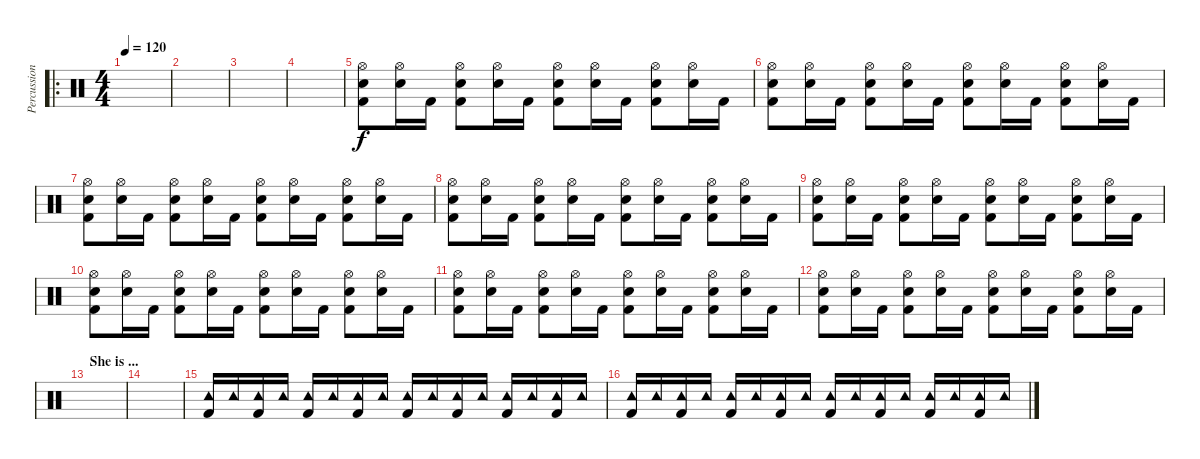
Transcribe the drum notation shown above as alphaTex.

\track ("Percussions" "Percussion") {instrument percussion}
\staff {score}
\articulation defaults
\ro
\ts (4 4)
\tempo 120
\clef neutral
\ks c
|
|
|
|
("Kick (hit) 2" "Hi-Hat (open)" "Snare (hit) 2").8 ("Hi-Hat (open)" "Snare (hit) 2").16 "Kick (hit) 2".16 ("Kick (hit) 2" "Hi-Hat (open)" "Snare (hit) 2").8 ("Hi-Hat (open)" "Snare (hit) 2").16 "Kick (hit) 2".16 ("Kick (hit) 2" "Hi-Hat (open)" "Snare (hit) 2").8 ("Hi-Hat (open)" "Snare (hit) 2").16 "Kick (hit) 2".16 ("Kick (hit) 2" "Hi-Hat (open)" "Snare (hit) 2").8 ("Hi-Hat (open)" "Snare (hit) 2").16 "Kick (hit) 2".16 |
("Kick (hit) 2" "Hi-Hat (open)" "Snare (hit) 2").8 ("Hi-Hat (open)" "Snare (hit) 2").16 "Kick (hit) 2".16 ("Kick (hit) 2" "Hi-Hat (open)" "Snare (hit) 2").8 ("Hi-Hat (open)" "Snare (hit) 2").16 "Kick (hit) 2".16 ("Kick (hit) 2" "Hi-Hat (open)" "Snare (hit) 2").8 ("Hi-Hat (open)" "Snare (hit) 2").16 "Kick (hit) 2".16 ("Kick (hit) 2" "Hi-Hat (open)" "Snare (hit) 2").8 ("Hi-Hat (open)" "Snare (hit) 2").16 "Kick (hit) 2".16 |
("Kick (hit) 2" "Hi-Hat (open)" "Snare (hit) 2").8 ("Hi-Hat (open)" "Snare (hit) 2").16 "Kick (hit) 2".16 ("Kick (hit) 2" "Hi-Hat (open)" "Snare (hit) 2").8 ("Hi-Hat (open)" "Snare (hit) 2").16 "Kick (hit) 2".16 ("Kick (hit) 2" "Hi-Hat (open)" "Snare (hit) 2").8 ("Hi-Hat (open)" "Snare (hit) 2").16 "Kick (hit) 2".16 ("Kick (hit) 2" "Hi-Hat (open)" "Snare (hit) 2").8 ("Hi-Hat (open)" "Snare (hit) 2").16 "Kick (hit) 2".16 |
("Kick (hit) 2" "Hi-Hat (open)" "Snare (hit) 2").8 ("Hi-Hat (open)" "Snare (hit) 2").16 "Kick (hit) 2".16 ("Kick (hit) 2" "Hi-Hat (open)" "Snare (hit) 2").8 ("Hi-Hat (open)" "Snare (hit) 2").16 "Kick (hit) 2".16 ("Kick (hit) 2" "Hi-Hat (open)" "Snare (hit) 2").8 ("Hi-Hat (open)" "Snare (hit) 2").16 "Kick (hit) 2".16 ("Kick (hit) 2" "Hi-Hat (open)" "Snare (hit) 2").8 ("Hi-Hat (open)" "Snare (hit) 2").16 "Kick (hit) 2".16 |
("Kick (hit) 2" "Hi-Hat (open)" "Snare (hit) 2").8 ("Hi-Hat (open)" "Snare (hit) 2").16 "Kick (hit) 2".16 ("Kick (hit) 2" "Hi-Hat (open)" "Snare (hit) 2").8 ("Hi-Hat (open)" "Snare (hit) 2").16 "Kick (hit) 2".16 ("Kick (hit) 2" "Hi-Hat (open)" "Snare (hit) 2").8 ("Hi-Hat (open)" "Snare (hit) 2").16 "Kick (hit) 2".16 ("Kick (hit) 2" "Hi-Hat (open)" "Snare (hit) 2").8 ("Hi-Hat (open)" "Snare (hit) 2").16 "Kick (hit) 2".16 |
("Kick (hit) 2" "Hi-Hat (open)" "Snare (hit) 2").8 ("Hi-Hat (open)" "Snare (hit) 2").16 "Kick (hit) 2".16 ("Kick (hit) 2" "Hi-Hat (open)" "Snare (hit) 2").8 ("Hi-Hat (open)" "Snare (hit) 2").16 "Kick (hit) 2".16 ("Kick (hit) 2" "Hi-Hat (open)" "Snare (hit) 2").8 ("Hi-Hat (open)" "Snare (hit) 2").16 "Kick (hit) 2".16 ("Kick (hit) 2" "Hi-Hat (open)" "Snare (hit) 2").8 ("Hi-Hat (open)" "Snare (hit) 2").16 "Kick (hit) 2".16 |
("Kick (hit) 2" "Hi-Hat (open)" "Snare (hit) 2").8 ("Hi-Hat (open)" "Snare (hit) 2").16 "Kick (hit) 2".16 ("Kick (hit) 2" "Hi-Hat (open)" "Snare (hit) 2").8 ("Hi-Hat (open)" "Snare (hit) 2").16 "Kick (hit) 2".16 ("Kick (hit) 2" "Hi-Hat (open)" "Snare (hit) 2").8 ("Hi-Hat (open)" "Snare (hit) 2").16 "Kick (hit) 2".16 ("Kick (hit) 2" "Hi-Hat (open)" "Snare (hit) 2").8 ("Hi-Hat (open)" "Snare (hit) 2").16 "Kick (hit) 2".16 |
("Kick (hit) 2" "Hi-Hat (open)" "Snare (hit) 2").8 ("Hi-Hat (open)" "Snare (hit) 2").16 "Kick (hit) 2".16 ("Kick (hit) 2" "Hi-Hat (open)" "Snare (hit) 2").8 ("Hi-Hat (open)" "Snare (hit) 2").16 "Kick (hit) 2".16 ("Kick (hit) 2" "Hi-Hat (open)" "Snare (hit) 2").8 ("Hi-Hat (open)" "Snare (hit) 2").16 "Kick (hit) 2".16 ("Kick (hit) 2" "Hi-Hat (open)" "Snare (hit) 2").8 ("Hi-Hat (open)" "Snare (hit) 2").16 "Kick (hit) 2".16 |
\section ("" "She is ...")
|
|
("Kick (hit) 2" "Tambourine (hit)").16 "Tambourine (hit)".16 ("Kick (hit) 2" "Tambourine (hit)").16 "Tambourine (hit)".16 ("Kick (hit) 2" "Tambourine (hit)").16 "Tambourine (hit)".16 ("Kick (hit) 2" "Tambourine (hit)").16 "Tambourine (hit)".16 ("Kick (hit) 2" "Tambourine (hit)").16 "Tambourine (hit)".16 ("Kick (hit) 2" "Tambourine (hit)").16 "Tambourine (hit)".16 ("Kick (hit) 2" "Tambourine (hit)").16 "Tambourine (hit)".16 ("Kick (hit) 2" "Tambourine (hit)").16 "Tambourine (hit)".16 |
("Kick (hit) 2" "Tambourine (hit)").16 "Tambourine (hit)".16 ("Kick (hit) 2" "Tambourine (hit)").16 "Tambourine (hit)".16 ("Kick (hit) 2" "Tambourine (hit)").16 "Tambourine (hit)".16 ("Kick (hit) 2" "Tambourine (hit)").16 "Tambourine (hit)".16 ("Kick (hit) 2" "Tambourine (hit)").16 "Tambourine (hit)".16 ("Kick (hit) 2" "Tambourine (hit)").16 "Tambourine (hit)".16 ("Kick (hit) 2" "Tambourine (hit)").16 "Tambourine (hit)".16 ("Kick (hit) 2" "Tambourine (hit)").16 "Tambourine (hit)".16
